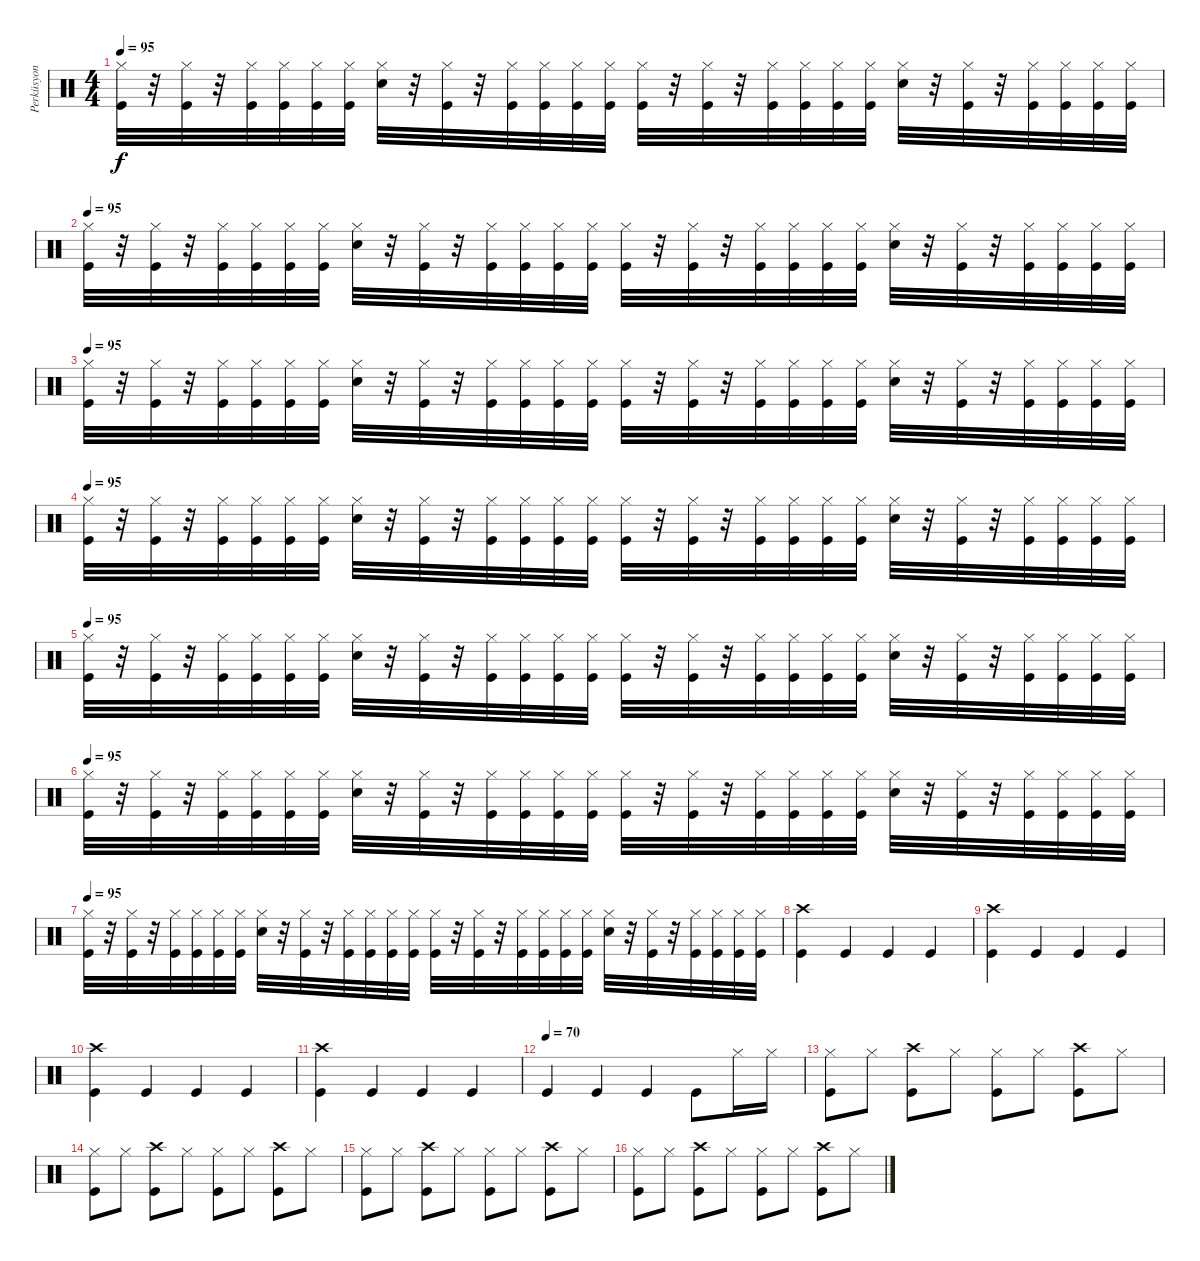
\track ("Perküsyon" "Perküsyon") {instrument percussion}
\staff {score}
\articulation defaults
\ts (4 4)
\tempo 95
\clef neutral
\ks c
("Kick (hit)" "Hi-Hat (closed)").32{dy f} r.32 ("Kick (hit)" "Hi-Hat (closed)").32 r.32 ("Kick (hit)" "Hi-Hat (closed)").32 ("Kick (hit)" "Hi-Hat (closed)").32 ("Kick (hit)" "Hi-Hat (closed)").32 ("Kick (hit)" "Hi-Hat (closed)").32 ("Snare (hit) 2" "Hi-Hat (closed)").32 r.32 ("Kick (hit)" "Hi-Hat (closed)").32 r.32 ("Kick (hit)" "Hi-Hat (closed)").32 ("Kick (hit)" "Hi-Hat (closed)").32 ("Kick (hit)" "Hi-Hat (closed)").32 ("Kick (hit)" "Hi-Hat (closed)").32 ("Kick (hit)" "Hi-Hat (closed)").32 r.32 ("Kick (hit)" "Hi-Hat (closed)").32 r.32 ("Kick (hit)" "Hi-Hat (closed)").32 ("Kick (hit)" "Hi-Hat (closed)").32 ("Kick (hit)" "Hi-Hat (closed)").32 ("Kick (hit)" "Hi-Hat (closed)").32 ("Snare (hit) 2" "Hi-Hat (closed)").32 r.32 ("Kick (hit)" "Hi-Hat (closed)").32 r.32 ("Kick (hit)" "Hi-Hat (closed)").32 ("Kick (hit)" "Hi-Hat (closed)").32 ("Kick (hit)" "Hi-Hat (closed)").32 ("Kick (hit)" "Hi-Hat (closed)").32 |
\tempo 95
("Kick (hit)" "Hi-Hat (closed)").32 r.32 ("Kick (hit)" "Hi-Hat (closed)").32 r.32 ("Kick (hit)" "Hi-Hat (closed)").32 ("Kick (hit)" "Hi-Hat (closed)").32 ("Kick (hit)" "Hi-Hat (closed)").32 ("Kick (hit)" "Hi-Hat (closed)").32 ("Snare (hit) 2" "Hi-Hat (closed)").32 r.32 ("Kick (hit)" "Hi-Hat (closed)").32 r.32 ("Kick (hit)" "Hi-Hat (closed)").32 ("Kick (hit)" "Hi-Hat (closed)").32 ("Kick (hit)" "Hi-Hat (closed)").32 ("Kick (hit)" "Hi-Hat (closed)").32 ("Kick (hit)" "Hi-Hat (closed)").32 r.32 ("Kick (hit)" "Hi-Hat (closed)").32 r.32 ("Kick (hit)" "Hi-Hat (closed)").32 ("Kick (hit)" "Hi-Hat (closed)").32 ("Kick (hit)" "Hi-Hat (closed)").32 ("Kick (hit)" "Hi-Hat (closed)").32 ("Snare (hit) 2" "Hi-Hat (closed)").32 r.32 ("Kick (hit)" "Hi-Hat (closed)").32 r.32 ("Kick (hit)" "Hi-Hat (closed)").32 ("Kick (hit)" "Hi-Hat (closed)").32 ("Kick (hit)" "Hi-Hat (closed)").32 ("Kick (hit)" "Hi-Hat (closed)").32 |
\tempo 95
("Kick (hit)" "Hi-Hat (closed)").32 r.32 ("Kick (hit)" "Hi-Hat (closed)").32 r.32 ("Kick (hit)" "Hi-Hat (closed)").32 ("Kick (hit)" "Hi-Hat (closed)").32 ("Kick (hit)" "Hi-Hat (closed)").32 ("Kick (hit)" "Hi-Hat (closed)").32 ("Snare (hit) 2" "Hi-Hat (closed)").32 r.32 ("Kick (hit)" "Hi-Hat (closed)").32 r.32 ("Kick (hit)" "Hi-Hat (closed)").32 ("Kick (hit)" "Hi-Hat (closed)").32 ("Kick (hit)" "Hi-Hat (closed)").32 ("Kick (hit)" "Hi-Hat (closed)").32 ("Kick (hit)" "Hi-Hat (closed)").32 r.32 ("Kick (hit)" "Hi-Hat (closed)").32 r.32 ("Kick (hit)" "Hi-Hat (closed)").32 ("Kick (hit)" "Hi-Hat (closed)").32 ("Kick (hit)" "Hi-Hat (closed)").32 ("Kick (hit)" "Hi-Hat (closed)").32 ("Snare (hit) 2" "Hi-Hat (closed)").32 r.32 ("Kick (hit)" "Hi-Hat (closed)").32 r.32 ("Kick (hit)" "Hi-Hat (closed)").32 ("Kick (hit)" "Hi-Hat (closed)").32 ("Kick (hit)" "Hi-Hat (closed)").32 ("Kick (hit)" "Hi-Hat (closed)").32 |
\tempo 95
("Kick (hit)" "Hi-Hat (closed)").32 r.32 ("Kick (hit)" "Hi-Hat (closed)").32 r.32 ("Kick (hit)" "Hi-Hat (closed)").32 ("Kick (hit)" "Hi-Hat (closed)").32 ("Kick (hit)" "Hi-Hat (closed)").32 ("Kick (hit)" "Hi-Hat (closed)").32 ("Snare (hit) 2" "Hi-Hat (closed)").32 r.32 ("Kick (hit)" "Hi-Hat (closed)").32 r.32 ("Kick (hit)" "Hi-Hat (closed)").32 ("Kick (hit)" "Hi-Hat (closed)").32 ("Kick (hit)" "Hi-Hat (closed)").32 ("Kick (hit)" "Hi-Hat (closed)").32 ("Kick (hit)" "Hi-Hat (closed)").32 r.32 ("Kick (hit)" "Hi-Hat (closed)").32 r.32 ("Kick (hit)" "Hi-Hat (closed)").32 ("Kick (hit)" "Hi-Hat (closed)").32 ("Kick (hit)" "Hi-Hat (closed)").32 ("Kick (hit)" "Hi-Hat (closed)").32 ("Snare (hit) 2" "Hi-Hat (closed)").32 r.32 ("Kick (hit)" "Hi-Hat (closed)").32 r.32 ("Kick (hit)" "Hi-Hat (closed)").32 ("Kick (hit)" "Hi-Hat (closed)").32 ("Kick (hit)" "Hi-Hat (closed)").32 ("Kick (hit)" "Hi-Hat (closed)").32 |
\tempo 95
("Kick (hit)" "Hi-Hat (closed)").32 r.32 ("Kick (hit)" "Hi-Hat (closed)").32 r.32 ("Kick (hit)" "Hi-Hat (closed)").32 ("Kick (hit)" "Hi-Hat (closed)").32 ("Kick (hit)" "Hi-Hat (closed)").32 ("Kick (hit)" "Hi-Hat (closed)").32 ("Snare (hit) 2" "Hi-Hat (closed)").32 r.32 ("Kick (hit)" "Hi-Hat (closed)").32 r.32 ("Kick (hit)" "Hi-Hat (closed)").32 ("Kick (hit)" "Hi-Hat (closed)").32 ("Kick (hit)" "Hi-Hat (closed)").32 ("Kick (hit)" "Hi-Hat (closed)").32 ("Kick (hit)" "Hi-Hat (closed)").32 r.32 ("Kick (hit)" "Hi-Hat (closed)").32 r.32 ("Kick (hit)" "Hi-Hat (closed)").32 ("Kick (hit)" "Hi-Hat (closed)").32 ("Kick (hit)" "Hi-Hat (closed)").32 ("Kick (hit)" "Hi-Hat (closed)").32 ("Snare (hit) 2" "Hi-Hat (closed)").32 r.32 ("Kick (hit)" "Hi-Hat (closed)").32 r.32 ("Kick (hit)" "Hi-Hat (closed)").32 ("Kick (hit)" "Hi-Hat (closed)").32 ("Kick (hit)" "Hi-Hat (closed)").32 ("Kick (hit)" "Hi-Hat (closed)").32 |
\tempo 95
("Kick (hit)" "Hi-Hat (closed)").32 r.32 ("Kick (hit)" "Hi-Hat (closed)").32 r.32 ("Kick (hit)" "Hi-Hat (closed)").32 ("Kick (hit)" "Hi-Hat (closed)").32 ("Kick (hit)" "Hi-Hat (closed)").32 ("Kick (hit)" "Hi-Hat (closed)").32 ("Snare (hit) 2" "Hi-Hat (closed)").32 r.32 ("Kick (hit)" "Hi-Hat (closed)").32 r.32 ("Kick (hit)" "Hi-Hat (closed)").32 ("Kick (hit)" "Hi-Hat (closed)").32 ("Kick (hit)" "Hi-Hat (closed)").32 ("Kick (hit)" "Hi-Hat (closed)").32 ("Kick (hit)" "Hi-Hat (closed)").32 r.32 ("Kick (hit)" "Hi-Hat (closed)").32 r.32 ("Kick (hit)" "Hi-Hat (closed)").32 ("Kick (hit)" "Hi-Hat (closed)").32 ("Kick (hit)" "Hi-Hat (closed)").32 ("Kick (hit)" "Hi-Hat (closed)").32 ("Snare (hit) 2" "Hi-Hat (closed)").32 r.32 ("Kick (hit)" "Hi-Hat (closed)").32 r.32 ("Kick (hit)" "Hi-Hat (closed)").32 ("Kick (hit)" "Hi-Hat (closed)").32 ("Kick (hit)" "Hi-Hat (closed)").32 ("Kick (hit)" "Hi-Hat (closed)").32 |
\tempo 95
("Kick (hit)" "Hi-Hat (closed)").32 r.32 ("Kick (hit)" "Hi-Hat (closed)").32 r.32 ("Kick (hit)" "Hi-Hat (closed)").32 ("Kick (hit)" "Hi-Hat (closed)").32 ("Kick (hit)" "Hi-Hat (closed)").32 ("Kick (hit)" "Hi-Hat (closed)").32 ("Snare (hit) 2" "Hi-Hat (closed)").32 r.32 ("Kick (hit)" "Hi-Hat (closed)").32 r.32 ("Kick (hit)" "Hi-Hat (closed)").32 ("Kick (hit)" "Hi-Hat (closed)").32 ("Kick (hit)" "Hi-Hat (closed)").32 ("Kick (hit)" "Hi-Hat (closed)").32 ("Kick (hit)" "Hi-Hat (closed)").32 r.32 ("Kick (hit)" "Hi-Hat (closed)").32 r.32 ("Kick (hit)" "Hi-Hat (closed)").32 ("Kick (hit)" "Hi-Hat (closed)").32 ("Kick (hit)" "Hi-Hat (closed)").32 ("Kick (hit)" "Hi-Hat (closed)").32 ("Snare (hit) 2" "Hi-Hat (closed)").32 r.32 ("Kick (hit)" "Hi-Hat (closed)").32 r.32 ("Kick (hit)" "Hi-Hat (closed)").32 ("Kick (hit)" "Hi-Hat (closed)").32 ("Kick (hit)" "Hi-Hat (closed)").32 ("Kick (hit)" "Hi-Hat (closed)").32 |
("Crash high (hit)" "Kick (hit)").4 "Kick (hit)".4 "Kick (hit)".4 "Kick (hit)".4 |
("Crash high (hit)" "Kick (hit)").4 "Kick (hit)".4 "Kick (hit)".4 "Kick (hit)".4 |
("Crash high (hit)" "Kick (hit)").4 "Kick (hit)".4 "Kick (hit)".4 "Kick (hit)".4 |
("Crash high (hit)" "Kick (hit)").4 "Kick (hit)".4 "Kick (hit)".4 "Kick (hit)".4 |
\tempo (70)
"Kick (hit)".4 "Kick (hit)".4 "Kick (hit)".4 "Kick (hit)".8 "Hi-Hat (closed)".16 "Hi-Hat (closed)".16 |
("Kick (hit)" "Hi-Hat (closed)").8 "Hi-Hat (closed)".8 ("Kick (hit)" "Crash high (hit)").8 "Hi-Hat (closed)".8 ("Kick (hit)" "Hi-Hat (closed)").8 "Hi-Hat (closed)".8 ("Kick (hit)" "Crash high (hit)").8 "Hi-Hat (closed)".8 |
("Kick (hit)" "Hi-Hat (closed)").8 "Hi-Hat (closed)".8 ("Kick (hit)" "Crash high (hit)").8 "Hi-Hat (closed)".8 ("Kick (hit)" "Hi-Hat (closed)").8 "Hi-Hat (closed)".8 ("Kick (hit)" "Crash high (hit)").8 "Hi-Hat (closed)".8 |
("Kick (hit)" "Hi-Hat (closed)").8 "Hi-Hat (closed)".8 ("Kick (hit)" "Crash high (hit)").8 "Hi-Hat (closed)".8 ("Kick (hit)" "Hi-Hat (closed)").8 "Hi-Hat (closed)".8 ("Kick (hit)" "Crash high (hit)").8 "Hi-Hat (closed)".8 |
("Kick (hit)" "Hi-Hat (closed)").8 "Hi-Hat (closed)".8 ("Kick (hit)" "Crash high (hit)").8 "Hi-Hat (closed)".8 ("Kick (hit)" "Hi-Hat (closed)").8 "Hi-Hat (closed)".8 ("Kick (hit)" "Crash high (hit)").8 "Hi-Hat (closed)".8
